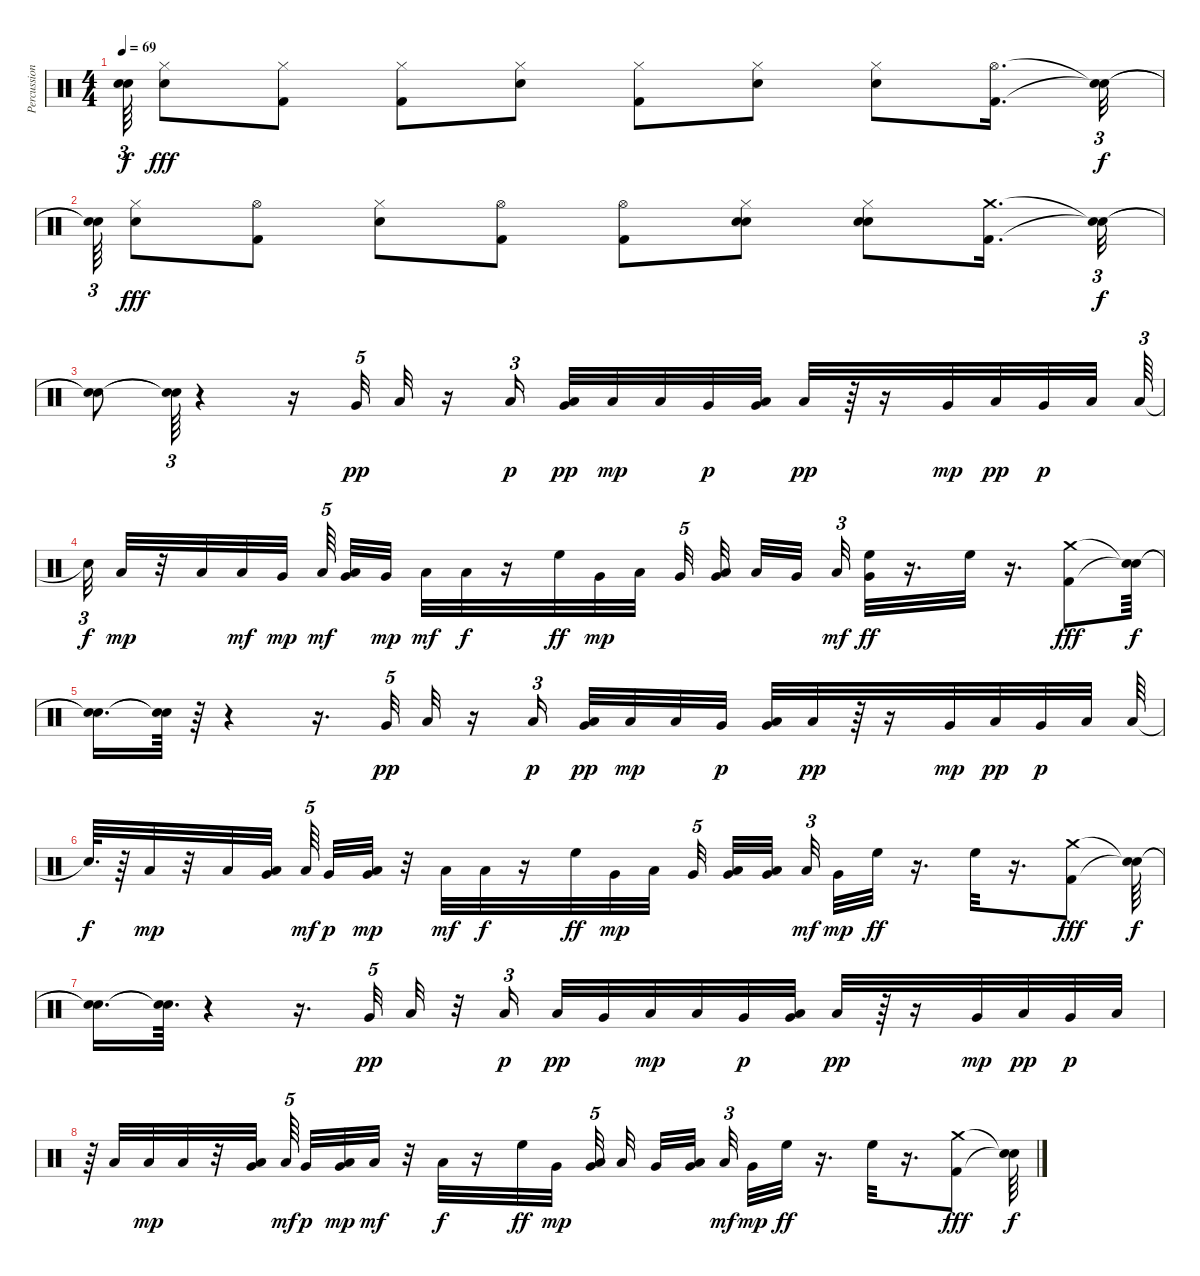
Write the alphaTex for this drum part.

\track ("Percussioni" "Percussion") {instrument percussion}
\staff {score}
\articulation defaults
\ts (4 4)
\tempo 69
\clef neutral
\ks c
("Snare (hit)"{t} "Snare (hit)"{t}).64{tu (3 2) dy f} ("Hi-Hat (closed)" "Snare (hit) 2").8{dy fff} ("Hi-Hat (closed)" "Kick (hit) 2").8 ("Hi-Hat (closed)" "Kick (hit) 2").8 ("Hi-Hat (closed)" "Snare (hit) 2").8 ("Hi-Hat (closed)" "Kick (hit) 2").8 ("Hi-Hat (closed)" "Snare (hit) 2").8 ("Hi-Hat (closed)" "Snare (hit) 2").8 ("Hi-Hat (open)" "Kick (hit) 2").16{d} ("Snare (hit)"{t} "Snare (hit)"{t}).32{tu (3 2) dy f} |
("Snare (hit)"{t} "Snare (hit)"{t}).64{tu (3 2)} ("Hi-Hat (closed)" "Snare (hit) 2").8{dy fff} ("Hi-Hat (open)" "Kick (hit) 2").8 ("Hi-Hat (closed)" "Snare (hit) 2").8 ("Hi-Hat (open)" "Kick (hit) 2").8 ("Hi-Hat (open)" "Kick (hit) 2").8 ("Hi-Hat (closed)" "Snare (hit) 2" "Snare (hit) 2").8 ("Hi-Hat (closed)" "Snare (hit) 2" "Snare (hit) 2").8 ("Crash medium (hit)" "Kick (hit) 2").16{d} ("Snare (hit)"{t} "Snare (hit)"{t}).32{tu (3 2) dy f} |
("Snare (hit)"{t} "Snare (hit)"{t}).8 ("Snare (hit)"{t} "Snare (hit)"{t}).64{tu (3 2)} r.4 r.16 "Very Low Tom (hit)".32{tu (5 4) dy pp} "Low Tom (hit)".32 r.16 "Low Tom (hit)".16{tu (3 2) dy p beam splitsecondary} ("Low Tom (hit)" "Very Low Tom (hit)").32{dy pp} "Low Tom (hit)".32{dy mp} "Low Tom (hit)".32 "Very Low Tom (hit)".32{dy p} ("Low Tom (hit)" "Very Low Tom (hit)").32 "Low Tom (hit)".32{dy pp} r.64 r.16 "Very Low Tom (hit)".32{dy mp} "Low Tom (hit)".32{dy pp} "Very Low Tom (hit)".32{dy p} "Low Tom (hit)".32{beam splitsecondary} "Low Tom (hit)".64{tu (3 2)} |
"Snare (hit)"{t}.32{tu (3 2) dy f} "Low Tom (hit)".32{dy mp} r.32 "Low Tom (hit)".32 "Low Tom (hit)".32{dy mf} "Very Low Tom (hit)".32{dy mp beam splitsecondary} "Low Tom (hit)".64{tu (5 4) dy mf beam splitsecondary} ("Very Low Tom (hit)" "Low Tom (hit)").32 "Very Low Tom (hit)".32{dy mp} "Low Tom (hit)".32{dy mf} "Low Tom (hit)".32{dy f} r.16 "High Floor Tom (hit)".32{dy ff} "Very Low Tom (hit)".32{dy mp} "Low Tom (hit)".32{beam splitsecondary} "Very Low Tom (hit)".32{tu (5 4)} ("Low Tom (hit)" "Very Low Tom (hit)").32 "Low Tom (hit)".32 "Very Low Tom (hit)".32{beam splitsecondary} "Low Tom (hit)".32{tu (3 2) dy mf} ("Very Low Tom (hit)" "High Floor Tom (hit)").32{dy ff} r.16{d} "High Floor Tom (hit)".32 r.16{d} ("Crash medium (hit)" "Kick (hit) 2").8{dy fff volume 16} ("Snare (hit)"{t} "Snare (hit)"{t}).64{dy f} |
("Snare (hit)"{t} "Snare (hit)"{t}).16{d} ("Snare (hit)"{t} "Snare (hit)"{t}).64 r.64 r.4 r.16{d} "Very Low Tom (hit)".32{tu (5 4) dy pp} "Low Tom (hit)".32 r.16 "Low Tom (hit)".16{tu (3 2) dy p beam splitsecondary} ("Low Tom (hit)" "Very Low Tom (hit)").32{dy pp} "Low Tom (hit)".32{dy mp} "Low Tom (hit)".32 "Very Low Tom (hit)".32{dy p} ("Low Tom (hit)" "Very Low Tom (hit)").32 "Low Tom (hit)".32{dy pp} r.64 r.16 "Very Low Tom (hit)".32{dy mp} "Low Tom (hit)".32{dy pp} "Very Low Tom (hit)".32{dy p} "Low Tom (hit)".32 "Low Tom (hit)".64 |
"Snare (hit)"{t}.64{d dy f} r.64 "Low Tom (hit)".32{dy mp} r.32 "Low Tom (hit)".32 ("Low Tom (hit)" "Very Low Tom (hit)").32{beam splitsecondary} "Low Tom (hit)".64{tu (5 4) dy mf beam splitsecondary} "Very Low Tom (hit)".32{dy p} ("Low Tom (hit)" "Very Low Tom (hit)").32{dy mp} r.32 "Low Tom (hit)".32{dy mf} "Low Tom (hit)".32{dy f} r.16 "High Floor Tom (hit)".32{dy ff} "Very Low Tom (hit)".32{dy mp} "Low Tom (hit)".32{beam splitsecondary} "Very Low Tom (hit)".32{tu (5 4)} ("Low Tom (hit)" "Very Low Tom (hit)").32 ("Low Tom (hit)" "Very Low Tom (hit)").32{beam splitsecondary} "Low Tom (hit)".32{tu (3 2) dy mf beam splitsecondary} "Very Low Tom (hit)".32{dy mp} "High Floor Tom (hit)".32{dy ff} r.16{d} "High Floor Tom (hit)".32 r.16{d} ("Crash medium (hit)" "Kick (hit) 2").8{dy fff volume 16} ("Snare (hit)"{t} "Snare (hit)"{t}).64{dy f} |
("Snare (hit)"{t} "Snare (hit)"{t}).16{d} ("Snare (hit)"{t} "Snare (hit)"{t}).64{d} r.4 r.16{d} "Very Low Tom (hit)".32{tu (5 4) dy pp} "Low Tom (hit)".32 r.32 "Low Tom (hit)".16{tu (3 2) dy p beam splitsecondary} "Low Tom (hit)".32{dy pp} "Very Low Tom (hit)".32 "Low Tom (hit)".32{dy mp} "Low Tom (hit)".32 "Very Low Tom (hit)".32{dy p} ("Low Tom (hit)" "Very Low Tom (hit)").32 "Low Tom (hit)".32{dy pp} r.64 r.16 "Very Low Tom (hit)".32{dy mp} "Low Tom (hit)".32{dy pp} "Very Low Tom (hit)".32{dy p} "Low Tom (hit)".32 |
r.64 "Low Tom (hit)".32 "Low Tom (hit)".32{dy mp} "Low Tom (hit)".32 r.32 ("Low Tom (hit)" "Very Low Tom (hit)").32{beam splitsecondary} "Low Tom (hit)".64{tu (5 4) dy mf beam splitsecondary} "Very Low Tom (hit)".32{dy p} ("Low Tom (hit)" "Very Low Tom (hit)").32{dy mp} "Low Tom (hit)".32{dy mf} r.32 "Low Tom (hit)".32{dy f} r.16 "High Floor Tom (hit)".32{dy ff} "Very Low Tom (hit)".32{dy mp beam splitsecondary} ("Low Tom (hit)" "Very Low Tom (hit)").32{tu (5 4)} "Low Tom (hit)".32 "Very Low Tom (hit)".32 ("Low Tom (hit)" "Very Low Tom (hit)").32{beam splitsecondary} "Low Tom (hit)".32{tu (3 2) dy mf beam splitsecondary} "Very Low Tom (hit)".32{dy mp} "High Floor Tom (hit)".32{dy ff} r.16{d} "High Floor Tom (hit)".32 r.16{d} ("Crash medium (hit)" "Kick (hit) 2").8{dy fff volume 16} ("Snare (hit)"{t} "Snare (hit)"{t}).64{dy f}
